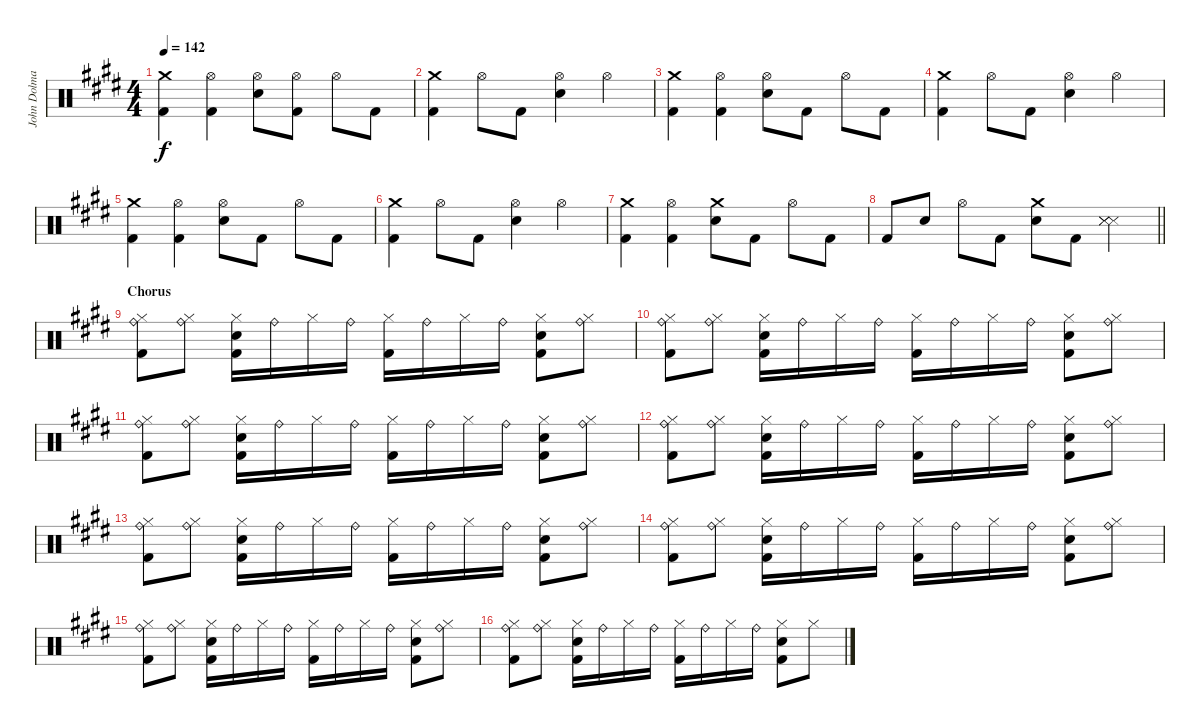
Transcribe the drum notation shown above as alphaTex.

\track ("John Dolmayan [Drums]" "John Dolma") {instrument percussion}
\staff {score}
\articulation defaults
\ts (4 4)
\tempo 142
\clef neutral
\ks c#minor
("Crash medium (hit)" "Kick (hit) 2").4{dy f} ("Hi-Hat (open)" "Kick (hit) 2").4 ("Hi-Hat (open)" "Electric Snare (hit)").8 ("Hi-Hat (open)" "Kick (hit) 2").8 "Hi-Hat (open)".8 "Kick (hit) 2".8 |
("Crash medium (hit)" "Kick (hit) 2").4 "Hi-Hat (open)".8 "Kick (hit) 2".8 ("Hi-Hat (open)" "Electric Snare (hit)").4 "Hi-Hat (open)".4 |
("Crash medium (hit)" "Kick (hit) 2").4 ("Hi-Hat (open)" "Kick (hit) 2").4 ("Hi-Hat (open)" "Electric Snare (hit)").8 "Kick (hit) 2".8 "Hi-Hat (open)".8 "Kick (hit) 2".8 |
("Crash medium (hit)" "Kick (hit) 2").4 "Hi-Hat (open)".8 "Kick (hit) 2".8 ("Hi-Hat (open)" "Electric Snare (hit)").4 "Hi-Hat (open)".4 |
("Crash medium (hit)" "Kick (hit) 2").4 ("Hi-Hat (open)" "Kick (hit) 2").4 ("Hi-Hat (open)" "Electric Snare (hit)").8 "Kick (hit) 2".8 "Hi-Hat (open)".8 "Kick (hit) 2".8 |
("Crash medium (hit)" "Kick (hit) 2").4 "Hi-Hat (open)".8 "Kick (hit) 2".8 ("Hi-Hat (open)" "Electric Snare (hit)").4 "Hi-Hat (open)".4 |
("Crash medium (hit)" "Kick (hit) 2").4 ("Hi-Hat (open)" "Kick (hit) 2").4 ("Crash medium (hit)" "Electric Snare (hit)").8 "Kick (hit) 2".8 "Hi-Hat (open)".8 "Kick (hit) 2".8 |
\barLineRight lightlight "Kick (hit) 2".8 "Electric Snare (hit)".8 "Hi-Hat (open)".8 "Kick (hit) 2".8
("Crash medium (hit)" "Electric Snare (hit)").8 "Kick (hit) 2".8 ("Snare (side stick) 3" "Snare (side stick) 3" "Snare (side stick) 3").4 |
\section ("" "Chorus")
("Ride (bell)" "Hi-Hat (closed)" "Kick (hit) 2").8 ("Ride (bell)" "Hi-Hat (closed)").8 ("Hi-Hat (closed)" "Electric Snare (hit)" "Kick (hit) 2").16 "Ride (bell)".16 "Hi-Hat (closed)".16 "Ride (bell)".16 ("Hi-Hat (closed)" "Kick (hit) 2").16 "Ride (bell)".16 "Hi-Hat (closed)".16 "Ride (bell)".16 ("Hi-Hat (closed)" "Electric Snare (hit)" "Kick (hit) 2").8 ("Ride (bell)" "Hi-Hat (closed)").8 |
("Ride (bell)" "Hi-Hat (closed)" "Kick (hit) 2").8 ("Ride (bell)" "Hi-Hat (closed)").8 ("Hi-Hat (closed)" "Electric Snare (hit)" "Kick (hit) 2").16 "Ride (bell)".16 "Hi-Hat (closed)".16 "Ride (bell)".16 ("Hi-Hat (closed)" "Kick (hit) 2").16 "Ride (bell)".16 "Hi-Hat (closed)".16 "Ride (bell)".16 ("Hi-Hat (closed)" "Electric Snare (hit)" "Kick (hit) 2").8 ("Ride (bell)" "Hi-Hat (closed)").8 |
("Ride (bell)" "Hi-Hat (closed)" "Kick (hit) 2").8 ("Ride (bell)" "Hi-Hat (closed)").8 ("Hi-Hat (closed)" "Electric Snare (hit)" "Kick (hit) 2").16 "Ride (bell)".16 "Hi-Hat (closed)".16 "Ride (bell)".16 ("Hi-Hat (closed)" "Kick (hit) 2").16 "Ride (bell)".16 "Hi-Hat (closed)".16 "Ride (bell)".16 ("Hi-Hat (closed)" "Electric Snare (hit)" "Kick (hit) 2").8 ("Ride (bell)" "Hi-Hat (closed)").8 |
("Ride (bell)" "Hi-Hat (closed)" "Kick (hit) 2").8 ("Ride (bell)" "Hi-Hat (closed)").8 ("Hi-Hat (closed)" "Electric Snare (hit)" "Kick (hit) 2").16 "Ride (bell)".16 "Hi-Hat (closed)".16 "Ride (bell)".16 ("Hi-Hat (closed)" "Kick (hit) 2").16 "Ride (bell)".16 "Hi-Hat (closed)".16 "Ride (bell)".16 ("Hi-Hat (closed)" "Electric Snare (hit)" "Kick (hit) 2").8 ("Ride (bell)" "Hi-Hat (closed)").8 |
("Ride (bell)" "Hi-Hat (closed)" "Kick (hit) 2").8 ("Ride (bell)" "Hi-Hat (closed)").8 ("Hi-Hat (closed)" "Electric Snare (hit)" "Kick (hit) 2").16 "Ride (bell)".16 "Hi-Hat (closed)".16 "Ride (bell)".16 ("Hi-Hat (closed)" "Kick (hit) 2").16 "Ride (bell)".16 "Hi-Hat (closed)".16 "Ride (bell)".16 ("Hi-Hat (closed)" "Electric Snare (hit)" "Kick (hit) 2").8 ("Ride (bell)" "Hi-Hat (closed)").8 |
("Ride (bell)" "Hi-Hat (closed)" "Kick (hit) 2").8 ("Ride (bell)" "Hi-Hat (closed)").8 ("Hi-Hat (closed)" "Electric Snare (hit)" "Kick (hit) 2").16 "Ride (bell)".16 "Hi-Hat (closed)".16 "Ride (bell)".16 ("Hi-Hat (closed)" "Kick (hit) 2").16 "Ride (bell)".16 "Hi-Hat (closed)".16 "Ride (bell)".16 ("Hi-Hat (closed)" "Electric Snare (hit)" "Kick (hit) 2").8 ("Ride (bell)" "Hi-Hat (closed)").8 |
("Ride (bell)" "Hi-Hat (closed)" "Kick (hit) 2").8 ("Ride (bell)" "Hi-Hat (closed)").8 ("Hi-Hat (closed)" "Electric Snare (hit)" "Kick (hit) 2").16 "Ride (bell)".16 "Hi-Hat (closed)".16 "Ride (bell)".16 ("Hi-Hat (closed)" "Kick (hit) 2").16 "Ride (bell)".16 "Hi-Hat (closed)".16 "Ride (bell)".16 ("Hi-Hat (closed)" "Electric Snare (hit)" "Kick (hit) 2").8 ("Ride (bell)" "Hi-Hat (closed)").8 |
("Ride (bell)" "Hi-Hat (closed)" "Kick (hit) 2").8 ("Ride (bell)" "Hi-Hat (closed)").8 ("Hi-Hat (closed)" "Electric Snare (hit)" "Kick (hit) 2").16 "Ride (bell)".16 "Hi-Hat (closed)".16 "Ride (bell)".16 ("Hi-Hat (closed)" "Kick (hit) 2").16 "Ride (bell)".16 "Hi-Hat (closed)".16 "Ride (bell)".16 ("Hi-Hat (closed)" "Electric Snare (hit)" "Kick (hit) 2").8 "Hi-Hat (closed)".8
